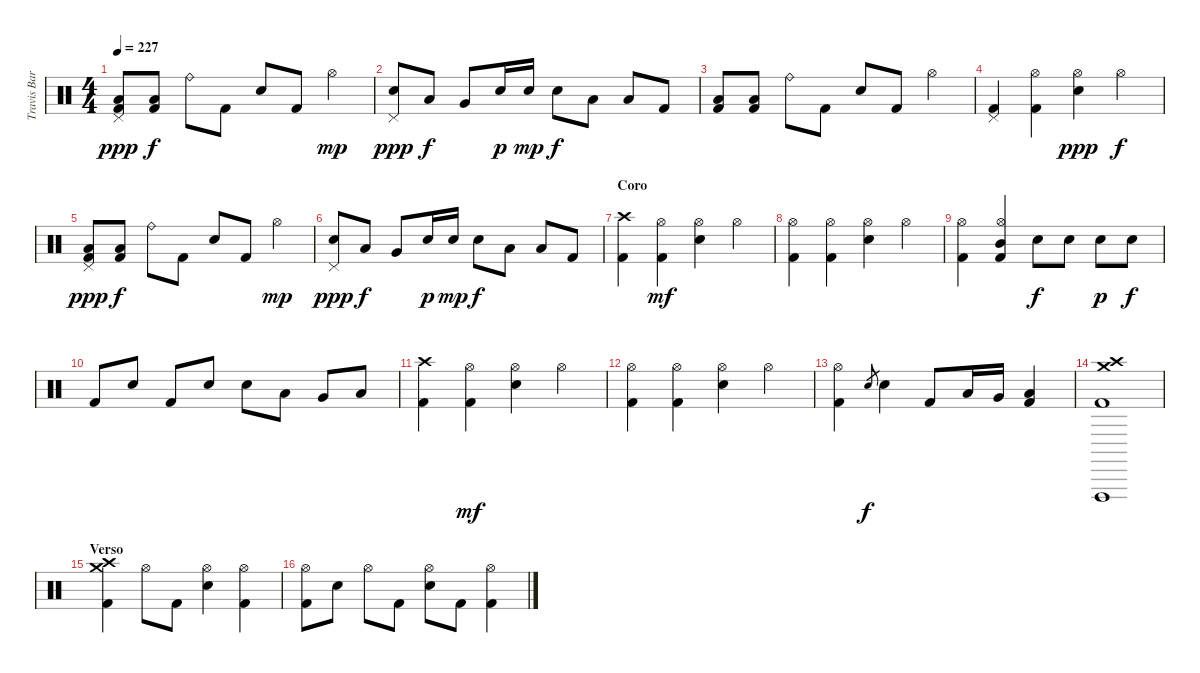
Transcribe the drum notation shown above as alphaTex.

\track ("Travis Barker - Batería" "Travis Bar") {instrument percussion}
\staff {score}
\articulation defaults
\ts (4 4)
\tempo 227
\clef neutral
\ks c
("Pedal Hi-Hat (hit)" "Low Floor Tom (hit)" "Kick (hit) 2").8{dy ppp} ("Low Floor Tom (hit)" "Kick (hit) 2").8{dy f} "Ride (bell)".8 "Kick (hit) 2".8 "Electric Snare (hit)".8 "Kick (hit) 2".8 "Hi-Hat (open)".4{dy mp} |
("Pedal Hi-Hat (hit)" "Electric Snare (hit)").8{dy ppp} "Low Tom (hit)".8{dy f} "Very Low Tom (hit)".8 "Electric Snare (hit)".16{dy p} "Electric Snare (hit)".16{dy mp} "Electric Snare (hit)".8{dy f} "Low Tom (hit)".8 "Low Floor Tom (hit)".8 "Kick (hit) 2".8 |
("Low Floor Tom (hit)" "Kick (hit) 2").8 ("Low Floor Tom (hit)" "Kick (hit) 2").8 "Ride (bell)".8 "Kick (hit) 2".8 "Electric Snare (hit)".8 "Kick (hit) 2".8 "Hi-Hat (open)".4 |
("Pedal Hi-Hat (hit)" "Kick (hit) 2").4 ("Hi-Hat (open)" "Kick (hit) 2").4 ("Hi-Hat (open)" "Electric Snare (hit)").4{dy ppp} "Hi-Hat (open)".4{dy f} |
("Pedal Hi-Hat (hit)" "Low Floor Tom (hit)" "Kick (hit) 2").8{dy ppp} ("Low Floor Tom (hit)" "Kick (hit) 2").8{dy f} "Ride (bell)".8 "Kick (hit) 2".8 "Electric Snare (hit)".8 "Kick (hit) 2".8 "Hi-Hat (open)".4{dy mp} |
("Pedal Hi-Hat (hit)" "Electric Snare (hit)").8{dy ppp} "Low Tom (hit)".8{dy f} "Very Low Tom (hit)".8 "Electric Snare (hit)".16{dy p} "Electric Snare (hit)".16{dy mp} "Electric Snare (hit)".8{dy f} "Low Tom (hit)".8 "Low Floor Tom (hit)".8 "Kick (hit) 2".8 |
\section ("" "Coro")
("Crash high (hit)" "Kick (hit) 2").4 ("Hi-Hat (open)" "Kick (hit) 2").4{dy mf} ("Hi-Hat (open)" "Electric Snare (hit)").4 "Hi-Hat (open)".4 |
("Hi-Hat (open)" "Kick (hit) 2").4 ("Hi-Hat (open)" "Kick (hit) 2").4 ("Hi-Hat (open)" "Electric Snare (hit)").4 "Hi-Hat (open)".4 |
("Hi-Hat (open)" "Kick (hit) 2").4 ("Hi-Hat (open)" "Mid Tom (hit)" "Kick (hit) 2").4 "Electric Snare (hit)".8{dy f} "Electric Snare (hit)".8 "Electric Snare (hit)".8{dy p} "Electric Snare (hit)".8{dy f} |
"Kick (hit) 2".8 "Electric Snare (hit)".8 "Kick (hit) 2".8 "Electric Snare (hit)".8 "Electric Snare (hit)".8 "Low Tom (hit)".8 "Very Low Tom (hit)".8 "Low Floor Tom (hit)".8 |
("Crash high (hit)" "Kick (hit) 2").4 ("Hi-Hat (open)" "Kick (hit) 2").4{dy mf} ("Hi-Hat (open)" "Electric Snare (hit)").4 "Hi-Hat (open)".4 |
("Hi-Hat (open)" "Kick (hit) 2").4 ("Hi-Hat (open)" "Kick (hit) 2").4 ("Hi-Hat (open)" "Electric Snare (hit)").4 "Hi-Hat (open)".4 |
("Hi-Hat (open)" "Kick (hit) 2").4 "Electric Snare (hit)".8{gr dy f} "Electric Snare (hit)".4 "Kick (hit) 2".8 "Low Tom (hit)".16 "Very Low Tom (hit)".16 ("Low Floor Tom (hit)" "Kick (hit) 2").4 |
("Crash medium (hit)" "Crash high (hit)" "Vibraslap (hit)" "Kick (hit) 2").1 |
\section ("" "Verso")
("Crash medium (hit)" "Crash high (hit)" "Kick (hit) 2").4 "Hi-Hat (open)".8 "Kick (hit) 2".8 ("Hi-Hat (open)" "Electric Snare (hit)").4 ("Hi-Hat (open)" "Kick (hit) 2").4 |
("Hi-Hat (open)" "Kick (hit) 2").8 "Electric Snare (hit)".8 "Hi-Hat (open)".8 "Kick (hit) 2".8 ("Hi-Hat (open)" "Electric Snare (hit)").8 "Kick (hit) 2".8 ("Hi-Hat (open)" "Kick (hit) 2").4
